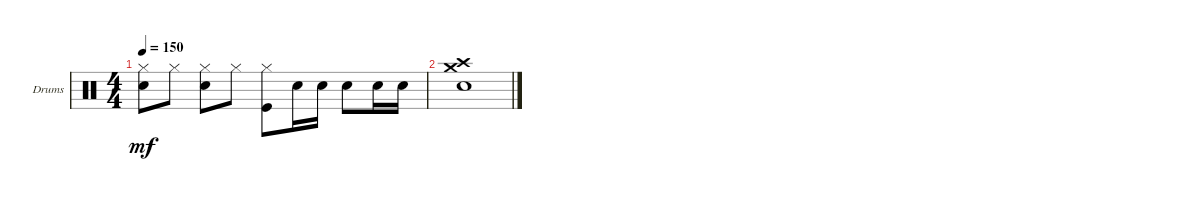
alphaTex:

\bracketExtendMode groupsimilarinstruments
\firstSystemTrackNameOrientation horizontal
\otherSystemsTrackNameOrientation horizontal
\track ("Drumkit" "Drums") {instrument percussion}
\staff {score}
\articulation defaults
\ts (4 4)
\tempo 150
\clef neutral
\ks c
("Hi-Hat (closed)" "Snare (hit) 2").8{dy mf} "Hi-Hat (closed)".8 ("Hi-Hat (closed)" "Snare (hit) 2").8 "Hi-Hat (closed)".8 ("Hi-Hat (closed)" "Kick (hit)").8 "Snare (hit) 2".16 "Snare (hit) 2".16 "Snare (hit) 2".8 "Snare (hit) 2".16 "Snare (hit) 2".16 |
("Snare (hit) 2" "Crash high (hit)" "Crash medium (hit)").1
